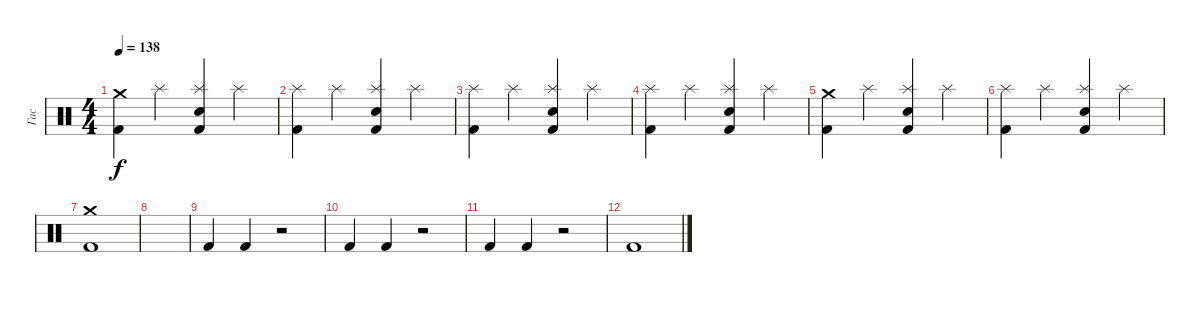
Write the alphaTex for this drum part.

\track ("Гас" "Гас") {instrument percussion}
\staff {score}
\articulation defaults
\ts (4 4)
\tempo 138
\clef neutral
\ks c
("Crash medium (hit)" "Kick (hit) 2").4{dy f} "Splash (hit)".4 ("Splash (hit)" "Electric Snare (hit)" "Kick (hit) 2").4 "Splash (hit)".4 |
("Splash (hit)" "Kick (hit) 2").4 "Splash (hit)".4 ("Splash (hit)" "Electric Snare (hit)" "Kick (hit) 2").4 "Splash (hit)".4 |
("Splash (hit)" "Kick (hit) 2").4 "Splash (hit)".4 ("Splash (hit)" "Electric Snare (hit)" "Kick (hit) 2").4 "Splash (hit)".4 |
("Splash (hit)" "Kick (hit) 2").4 "Splash (hit)".4 ("Splash (hit)" "Electric Snare (hit)" "Kick (hit) 2").4 "Splash (hit)".4 |
("Crash medium (hit)" "Kick (hit) 2").4 "Splash (hit)".4 ("Splash (hit)" "Electric Snare (hit)" "Kick (hit) 2").4 "Splash (hit)".4 |
("Splash (hit)" "Kick (hit) 2").4 "Splash (hit)".4 ("Splash (hit)" "Electric Snare (hit)" "Kick (hit) 2").4 "Splash (hit)".4 |
("Crash medium (hit)" "Kick (hit) 2").1 |
|
"Kick (hit) 2".4 "Kick (hit) 2".4 r.2 |
"Kick (hit) 2".4 "Kick (hit) 2".4 r.2 |
"Kick (hit) 2".4 "Kick (hit) 2".4 r.2 |
"Kick (hit) 2".1
